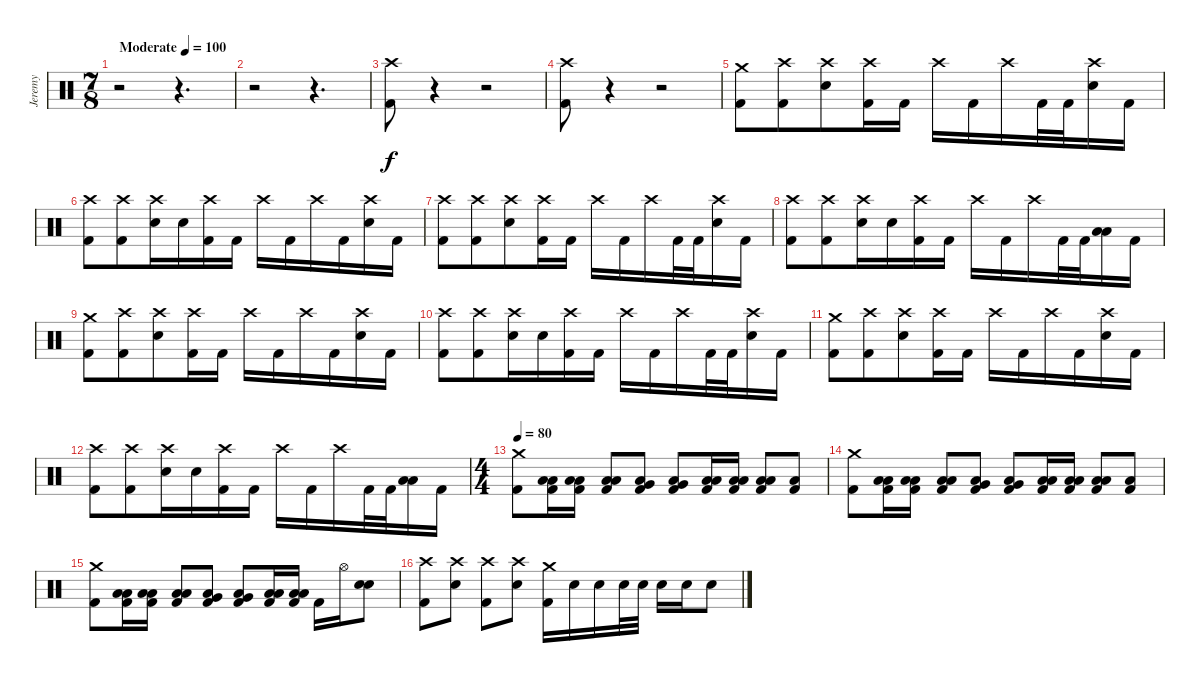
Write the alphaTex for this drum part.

\track ("Jeremy" "Jeremy") {instrument percussion}
\staff {score}
\articulation defaults
\ts (7 8)
\tempo (100 "Moderate")
\clef neutral
\ks c
r.2{dy f} r.4{d} |
r.2 r.4{d} |
("Crash high (hit)" "Kick (hit) 2").8 r.4 r.2 |
("Crash high (hit)" "Kick (hit) 2").8 r.4 r.2 |
("Crash medium (hit)" "Kick (hit) 2").8 ("Crash high (hit)" "Kick (hit) 2").8 ("Crash high (hit)" "Electric Snare (hit)").8 ("Crash high (hit)" "Kick (hit) 2").16 "Kick (hit) 2".16 "Crash high (hit)".16 "Kick (hit) 2".16 "Crash high (hit)".16 "Kick (hit) 2".32 "Kick (hit) 2".32 ("Crash high (hit)" "Electric Snare (hit)").16 "Kick (hit) 2".16 |
("Crash high (hit)" "Kick (hit) 2").8 ("Crash high (hit)" "Kick (hit) 2").8 ("Crash high (hit)" "Electric Snare (hit)").16 "Electric Snare (hit)".16 ("Crash high (hit)" "Kick (hit) 2").16 "Kick (hit) 2".16 "Crash high (hit)".16 "Kick (hit) 2".16 "Crash high (hit)".16 "Kick (hit) 2".16 ("Crash high (hit)" "Electric Snare (hit)").16 "Kick (hit) 2".16 |
("Crash high (hit)" "Kick (hit) 2").8 ("Crash high (hit)" "Kick (hit) 2").8 ("Crash high (hit)" "Electric Snare (hit)").8 ("Crash high (hit)" "Kick (hit) 2").16 "Kick (hit) 2".16 "Crash high (hit)".16 "Kick (hit) 2".16 "Crash high (hit)".16 "Kick (hit) 2".32 "Kick (hit) 2".32 ("Crash high (hit)" "Electric Snare (hit)").16 "Kick (hit) 2".16 |
("Crash high (hit)" "Kick (hit) 2").8 ("Crash high (hit)" "Kick (hit) 2").8 ("Crash high (hit)" "Electric Snare (hit)").16 "Electric Snare (hit)".16 ("Crash high (hit)" "Kick (hit) 2").16 "Kick (hit) 2".16 "Crash high (hit)".16 "Kick (hit) 2".16 "Crash high (hit)".16 "Kick (hit) 2".32 "Kick (hit) 2".32 ("Low Tom (hit)" "Low Floor Tom (hit)").16 "Kick (hit) 2".16 |
("Crash medium (hit)" "Kick (hit) 2").8 ("Crash high (hit)" "Kick (hit) 2").8 ("Crash high (hit)" "Electric Snare (hit)").8 ("Crash high (hit)" "Kick (hit) 2").16 "Kick (hit) 2".16 "Crash high (hit)".16 "Kick (hit) 2".16 "Crash high (hit)".16 "Kick (hit) 2".16 ("Crash high (hit)" "Electric Snare (hit)").16 "Kick (hit) 2".16 |
("Crash high (hit)" "Kick (hit) 2").8 ("Crash high (hit)" "Kick (hit) 2").8 ("Crash high (hit)" "Electric Snare (hit)").16 "Electric Snare (hit)".16 ("Crash high (hit)" "Kick (hit) 2").16 "Kick (hit) 2".16 "Crash high (hit)".16 "Kick (hit) 2".16 "Crash high (hit)".16 "Kick (hit) 2".32 "Kick (hit) 2".32 ("Crash high (hit)" "Electric Snare (hit)").16 "Kick (hit) 2".16 |
("Crash medium (hit)" "Kick (hit) 2").8 ("Crash high (hit)" "Kick (hit) 2").8 ("Crash high (hit)" "Electric Snare (hit)").8 ("Crash high (hit)" "Kick (hit) 2").16 "Kick (hit) 2".16 "Crash high (hit)".16 "Kick (hit) 2".16 "Crash high (hit)".16 "Kick (hit) 2".16 ("Crash high (hit)" "Electric Snare (hit)").16 "Kick (hit) 2".16 |
("Crash high (hit)" "Kick (hit) 2").8 ("Crash high (hit)" "Kick (hit) 2").8 ("Crash high (hit)" "Electric Snare (hit)").16 "Electric Snare (hit)".16 ("Crash high (hit)" "Kick (hit) 2").16 "Kick (hit) 2".16 "Crash high (hit)".16 "Kick (hit) 2".16 "Crash high (hit)".16 "Kick (hit) 2".32 "Kick (hit) 2".32 ("Low Tom (hit)" "Low Floor Tom (hit)").16 "Kick (hit) 2".16 |
\ts (4 4)
\tempo 80
("Crash medium (hit)" "Kick (hit) 2").8 ("Low Tom (hit)" "Low Floor Tom (hit)" "Kick (hit) 2").16 ("Low Floor Tom (hit)" "Low Tom (hit)" "Kick (hit) 2").16 ("Low Tom (hit)" "Low Floor Tom (hit)" "Kick (hit) 2").8 ("Very Low Tom (hit)" "Low Floor Tom (hit)" "Kick (hit) 2").8 ("Very Low Tom (hit)" "Low Floor Tom (hit)" "Kick (hit) 2").8 ("Low Tom (hit)" "Low Floor Tom (hit)" "Kick (hit) 2").16 ("Low Tom (hit)" "Low Floor Tom (hit)" "Kick (hit) 2").16 ("Low Tom (hit)" "Low Floor Tom (hit)" "Kick (hit) 2").8 ("Low Floor Tom (hit)" "Kick (hit) 2").8 |
("Crash medium (hit)" "Kick (hit) 2").8 ("Low Tom (hit)" "Low Floor Tom (hit)" "Kick (hit) 2").16 ("Low Floor Tom (hit)" "Low Tom (hit)" "Kick (hit) 2").16 ("Low Tom (hit)" "Low Floor Tom (hit)" "Kick (hit) 2").8 ("Very Low Tom (hit)" "Low Floor Tom (hit)" "Kick (hit) 2").8 ("Very Low Tom (hit)" "Low Floor Tom (hit)" "Kick (hit) 2").8 ("Low Tom (hit)" "Low Floor Tom (hit)" "Kick (hit) 2").16 ("Low Tom (hit)" "Low Floor Tom (hit)" "Kick (hit) 2").16 ("Low Tom (hit)" "Low Floor Tom (hit)" "Kick (hit) 2").8 ("Low Floor Tom (hit)" "Kick (hit) 2").8 |
("Crash medium (hit)" "Kick (hit) 2").8 ("Low Tom (hit)" "Low Floor Tom (hit)" "Kick (hit) 2").16 ("Low Floor Tom (hit)" "Low Tom (hit)" "Kick (hit) 2").16 ("Low Tom (hit)" "Low Floor Tom (hit)" "Kick (hit) 2").8 ("Very Low Tom (hit)" "Low Floor Tom (hit)" "Kick (hit) 2").8 ("Very Low Tom (hit)" "Low Floor Tom (hit)" "Kick (hit) 2").8 ("Low Tom (hit)" "Low Floor Tom (hit)" "Kick (hit) 2").16 ("Low Tom (hit)" "Low Floor Tom (hit)" "Kick (hit) 2").16 "Kick (hit) 2".16 "Hi-Hat (open)".16 ("Electric Snare (hit)" "Electric Snare (hit)").8 |
("Crash high (hit)" "Kick (hit) 2").8 ("Crash high (hit)" "Electric Snare (hit)").8 ("Crash high (hit)" "Kick (hit) 2").8 ("Crash high (hit)" "Electric Snare (hit)").8 ("Crash medium (hit)" "Kick (hit) 2").16 "Electric Snare (hit)".16 "Electric Snare (hit)".16 "Electric Snare (hit)".32 "Electric Snare (hit)".32 "Electric Snare (hit)".16 "Electric Snare (hit)".16 "Electric Snare (hit)".8
